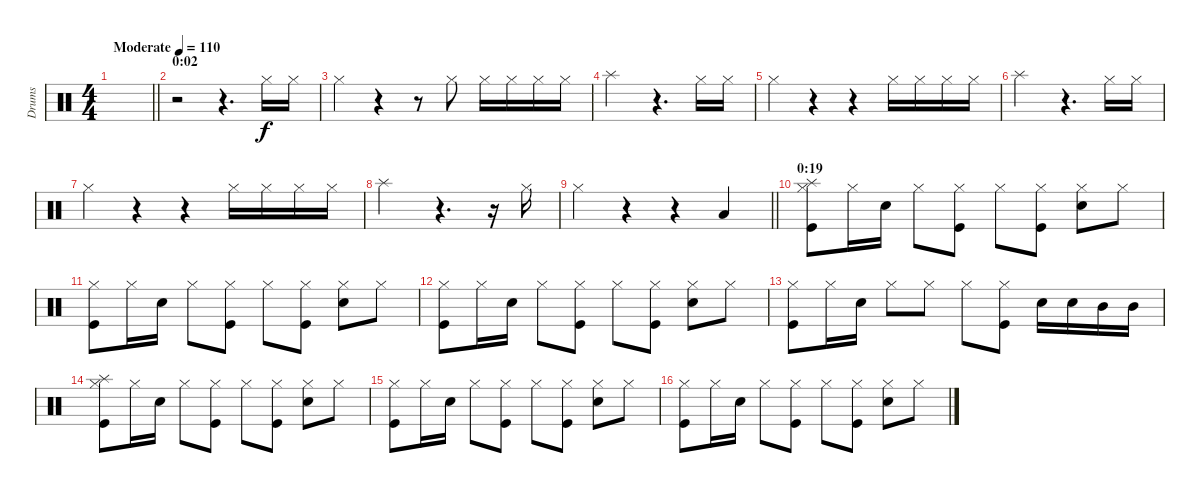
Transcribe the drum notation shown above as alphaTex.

\track ("Drums" "Drums") {instrument percussion}
\staff {score}
\articulation defaults
\ts (4 4)
\tempo (110 "Moderate")
\clef neutral
\barLineRight lightlight
\ks c
|
\section ("" "0:02")
r.2 r.4{d} "Hi-Hat (closed)".16 "Hi-Hat (closed)".16 |
"Hi-Hat (closed)".4 r.4 r.8 "Hi-Hat (closed)".8 "Hi-Hat (closed)".16 "Hi-Hat (closed)".16 "Hi-Hat (closed)".16 "Hi-Hat (closed)".16 |
"Splash (hit)".2 r.4{d} "Hi-Hat (closed)".16 "Hi-Hat (closed)".16 |
"Hi-Hat (closed)".4 r.4 r.4 "Hi-Hat (closed)".16 "Hi-Hat (closed)".16 "Hi-Hat (closed)".16 "Hi-Hat (closed)".16 |
"Splash (hit)".2 r.4{d} "Hi-Hat (closed)".16 "Hi-Hat (closed)".16 |
"Hi-Hat (closed)".4 r.4 r.4 "Hi-Hat (closed)".16 "Hi-Hat (closed)".16 "Hi-Hat (closed)".16 "Hi-Hat (closed)".16 |
"Splash (hit)".2 r.4{d} r.16 "Hi-Hat (closed)".16 |
\barLineRight lightlight "Hi-Hat (closed)".4
r.4 r.4 "Low Floor Tom (hit)".4 |
\section ("" "0:19")
("Splash (hit)" "Hi-Hat (closed)" "Kick (hit)").8 "Hi-Hat (closed)".16 "Snare (hit) 2".16 "Hi-Hat (closed)".8 ("Hi-Hat (closed)" "Kick (hit)").8 "Hi-Hat (closed)".8 ("Hi-Hat (closed)" "Kick (hit)").8 ("Hi-Hat (closed)" "Snare (hit) 2").8 "Hi-Hat (closed)".8 |
("Hi-Hat (closed)" "Kick (hit)").8 "Hi-Hat (closed)".16 "Snare (hit) 2".16 "Hi-Hat (closed)".8 ("Hi-Hat (closed)" "Kick (hit)").8 "Hi-Hat (closed)".8 ("Hi-Hat (closed)" "Kick (hit)").8 ("Hi-Hat (closed)" "Snare (hit) 2").8 "Hi-Hat (closed)".8 |
("Hi-Hat (closed)" "Kick (hit)").8 "Hi-Hat (closed)".16 "Snare (hit) 2".16 "Hi-Hat (closed)".8 ("Hi-Hat (closed)" "Kick (hit)").8 "Hi-Hat (closed)".8 ("Hi-Hat (closed)" "Kick (hit)").8 ("Hi-Hat (closed)" "Snare (hit) 2").8 "Hi-Hat (closed)".8 |
("Hi-Hat (closed)" "Kick (hit)").8 "Hi-Hat (closed)".16 "Snare (hit) 2".16 "Hi-Hat (closed)".8 "Hi-Hat (closed)".8 "Hi-Hat (closed)".8 ("Hi-Hat (closed)" "Kick (hit)").8 "Snare (hit) 2".16 "Snare (hit) 2".16 "Mid Tom (hit)".16 "Mid Tom (hit)".16 |
("Splash (hit)" "Hi-Hat (closed)" "Kick (hit)").8 "Hi-Hat (closed)".16 "Snare (hit) 2".16 "Hi-Hat (closed)".8 ("Hi-Hat (closed)" "Kick (hit)").8 "Hi-Hat (closed)".8 ("Hi-Hat (closed)" "Kick (hit)").8 ("Hi-Hat (closed)" "Snare (hit) 2").8 "Hi-Hat (closed)".8 |
("Hi-Hat (closed)" "Kick (hit)").8 "Hi-Hat (closed)".16 "Snare (hit) 2".16 "Hi-Hat (closed)".8 ("Hi-Hat (closed)" "Kick (hit)").8 "Hi-Hat (closed)".8 ("Hi-Hat (closed)" "Kick (hit)").8 ("Hi-Hat (closed)" "Snare (hit) 2").8 "Hi-Hat (closed)".8 |
("Hi-Hat (closed)" "Kick (hit)").8 "Hi-Hat (closed)".16 "Snare (hit) 2".16 "Hi-Hat (closed)".8 ("Hi-Hat (closed)" "Kick (hit)").8 "Hi-Hat (closed)".8 ("Hi-Hat (closed)" "Kick (hit)").8 ("Hi-Hat (closed)" "Snare (hit) 2").8 "Hi-Hat (closed)".8
